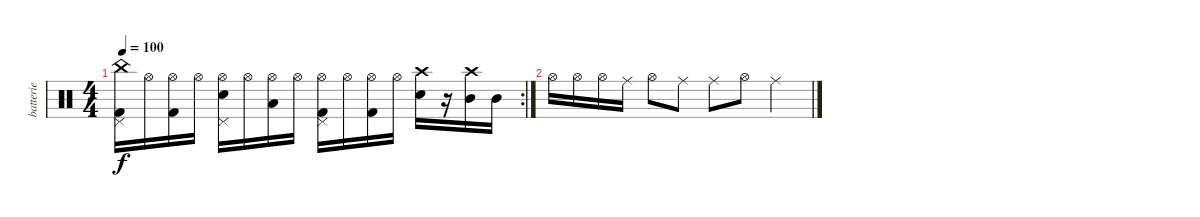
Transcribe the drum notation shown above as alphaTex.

\track ("batterie" "batterie") {instrument percussion}
\staff {score}
\articulation defaults
\rc 2
\ts (4 4)
\tempo 100
\clef neutral
\ks c
("China (hit)" "Pedal Hi-Hat (hit)" "Kick (hit) 2").16{dy f} "Hi-Hat (open)".16 ("Hi-Hat (open)" "Kick (hit) 2").16 "Hi-Hat (open)".16 ("Hi-Hat (open)" "Pedal Hi-Hat (hit)" "Snare (hit) 2").16 "Hi-Hat (open)".16 ("Hi-Hat (open)" "Low Floor Tom (hit)").16 "Hi-Hat (open)".16 ("Hi-Hat (open)" "Pedal Hi-Hat (hit)" "Kick (hit) 2").16 "Hi-Hat (open)".16 ("Hi-Hat (open)" "Kick (hit) 2").16 "Hi-Hat (open)".16 ("Crash high (hit)" "Snare (hit) 2").16 r.16 ("Crash high (hit)" "Mid Tom (hit)").16 "Mid Tom (hit)".16 |
"Hi-Hat (open)".16 "Hi-Hat (open)".16 "Hi-Hat (open)".16 "Ride (middle)".16 "Hi-Hat (open)".8 "Ride (middle)".8 "Ride (middle)".8 "Hi-Hat (open)".8 "Ride (middle)".4
